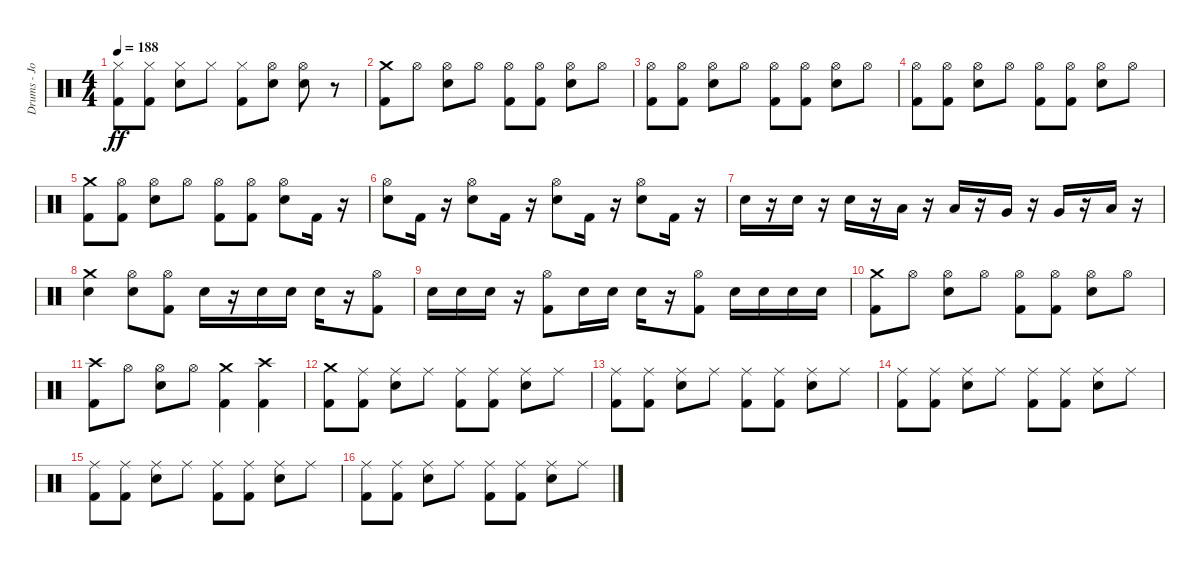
\track ("Drums - Jordan" "Drums - Jo") {instrument percussion}
\staff {score}
\articulation defaults
\ts (4 4)
\tempo 188
\clef neutral
\ks c
("Kick (hit) 2" "Hi-Hat (closed)").8{dy ff} ("Kick (hit) 2" "Hi-Hat (closed)").8 ("Electric Snare (hit)" "Hi-Hat (closed)").8 "Hi-Hat (closed)".8 ("Hi-Hat (closed)" "Kick (hit) 2").8 ("Electric Snare (hit)" "Hi-Hat (open)").8 ("Electric Snare (hit)" "Hi-Hat (open)").8 r.8 |
("Kick (hit) 2" "Crash medium (hit)").8 "Hi-Hat (open)".8 ("Electric Snare (hit)" "Hi-Hat (open)").8 "Hi-Hat (open)".8 ("Kick (hit) 2" "Hi-Hat (open)").8 ("Kick (hit) 2" "Hi-Hat (open)").8 ("Electric Snare (hit)" "Hi-Hat (open)").8 "Hi-Hat (open)".8 |
("Kick (hit) 2" "Hi-Hat (open)").8 ("Kick (hit) 2" "Hi-Hat (open)").8 ("Electric Snare (hit)" "Hi-Hat (open)").8 "Hi-Hat (open)".8 ("Kick (hit) 2" "Hi-Hat (open)").8 ("Kick (hit) 2" "Hi-Hat (open)").8 ("Electric Snare (hit)" "Hi-Hat (open)").8 "Hi-Hat (open)".8 |
("Kick (hit) 2" "Hi-Hat (open)").8 ("Kick (hit) 2" "Hi-Hat (open)").8 ("Electric Snare (hit)" "Hi-Hat (open)").8 "Hi-Hat (open)".8 ("Kick (hit) 2" "Hi-Hat (open)").8 ("Kick (hit) 2" "Hi-Hat (open)").8 ("Electric Snare (hit)" "Hi-Hat (open)").8 "Hi-Hat (open)".8 |
("Kick (hit) 2" "Crash medium (hit)").8 ("Kick (hit) 2" "Hi-Hat (open)").8 ("Electric Snare (hit)" "Hi-Hat (open)").8 "Hi-Hat (open)".8 ("Kick (hit) 2" "Hi-Hat (open)").8 ("Kick (hit) 2" "Hi-Hat (open)").8 ("Electric Snare (hit)" "Hi-Hat (open)").8 "Kick (hit) 2".16 r.16 |
("Electric Snare (hit)" "Hi-Hat (open)").8 "Kick (hit) 2".16 r.16 ("Electric Snare (hit)" "Hi-Hat (open)").8 "Kick (hit) 2".16 r.16 ("Electric Snare (hit)" "Hi-Hat (open)").8 "Kick (hit) 2".16 r.16 ("Electric Snare (hit)" "Hi-Hat (open)").8 "Kick (hit) 2".16 r.16 |
"Electric Snare (hit)".16 r.16 "Electric Snare (hit)".16 r.16 "Electric Snare (hit)".16 r.16 "Low Tom (hit)".16 r.16 "Low Tom (hit)".16 r.16 "Very Low Tom (hit)".16 r.16 "Very Low Tom (hit)".16 r.16 "Low Floor Tom (hit)".16 r.16 |
("Electric Snare (hit)" "Crash medium (hit)").4 ("Electric Snare (hit)" "Hi-Hat (open)").8 ("Kick (hit) 2" "Hi-Hat (open)").8 "Electric Snare (hit)".16 r.16 "Electric Snare (hit)".16 "Electric Snare (hit)".16 "Electric Snare (hit)".16 r.16 ("Kick (hit) 2" "Hi-Hat (open)").8 |
"Electric Snare (hit)".16 "Electric Snare (hit)".16 "Electric Snare (hit)".16 r.16 ("Kick (hit) 2" "Hi-Hat (open)").8 "Electric Snare (hit)".16 "Electric Snare (hit)".16 "Electric Snare (hit)".16 r.16 ("Kick (hit) 2" "Hi-Hat (open)").8 "Electric Snare (hit)".16 "Electric Snare (hit)".16 "Electric Snare (hit)".16 "Electric Snare (hit)".16 |
("Kick (hit) 2" "Crash medium (hit)").8 "Hi-Hat (open)".8 ("Electric Snare (hit)" "Hi-Hat (open)").8 "Hi-Hat (open)".8 ("Kick (hit) 2" "Hi-Hat (open)").8 ("Kick (hit) 2" "Hi-Hat (open)").8 ("Electric Snare (hit)" "Hi-Hat (open)").8 "Hi-Hat (open)".8 |
("Kick (hit) 2" "Crash high (hit)").8 "Hi-Hat (open)".8 ("Electric Snare (hit)" "Hi-Hat (open)").8 "Hi-Hat (open)".8 ("Kick (hit) 2" "Crash medium (hit)").4 ("Kick (hit) 2" "Crash high (hit)").4 |
("Kick (hit) 2" "Crash medium (hit)").8 ("Kick (hit) 2" "Ride (middle)").8 ("Electric Snare (hit)" "Ride (middle)").8 "Ride (middle)".8 ("Kick (hit) 2" "Ride (middle)").8 ("Kick (hit) 2" "Ride (middle)").8 ("Electric Snare (hit)" "Ride (middle)").8 "Ride (middle)".8 |
("Kick (hit) 2" "Ride (middle)").8 ("Kick (hit) 2" "Ride (middle)").8 ("Electric Snare (hit)" "Ride (middle)").8 "Ride (middle)".8 ("Kick (hit) 2" "Ride (middle)").8 ("Kick (hit) 2" "Ride (middle)").8 ("Electric Snare (hit)" "Ride (middle)").8 "Ride (middle)".8 |
("Kick (hit) 2" "Ride (middle)").8 ("Kick (hit) 2" "Ride (middle)").8 ("Electric Snare (hit)" "Ride (middle)").8 "Ride (middle)".8 ("Kick (hit) 2" "Ride (middle)").8 ("Kick (hit) 2" "Ride (middle)").8 ("Electric Snare (hit)" "Ride (middle)").8 "Ride (middle)".8 |
("Kick (hit) 2" "Ride (middle)").8 ("Kick (hit) 2" "Ride (middle)").8 ("Electric Snare (hit)" "Ride (middle)").8 "Ride (middle)".8 ("Kick (hit) 2" "Ride (middle)").8 ("Kick (hit) 2" "Ride (middle)").8 ("Electric Snare (hit)" "Ride (middle)").8 "Ride (middle)".8 |
("Kick (hit) 2" "Ride (middle)").8 ("Kick (hit) 2" "Ride (middle)").8 ("Electric Snare (hit)" "Ride (middle)").8 "Ride (middle)".8 ("Kick (hit) 2" "Ride (middle)").8 ("Kick (hit) 2" "Ride (middle)").8 ("Electric Snare (hit)" "Ride (middle)").8 "Ride (middle)".8
